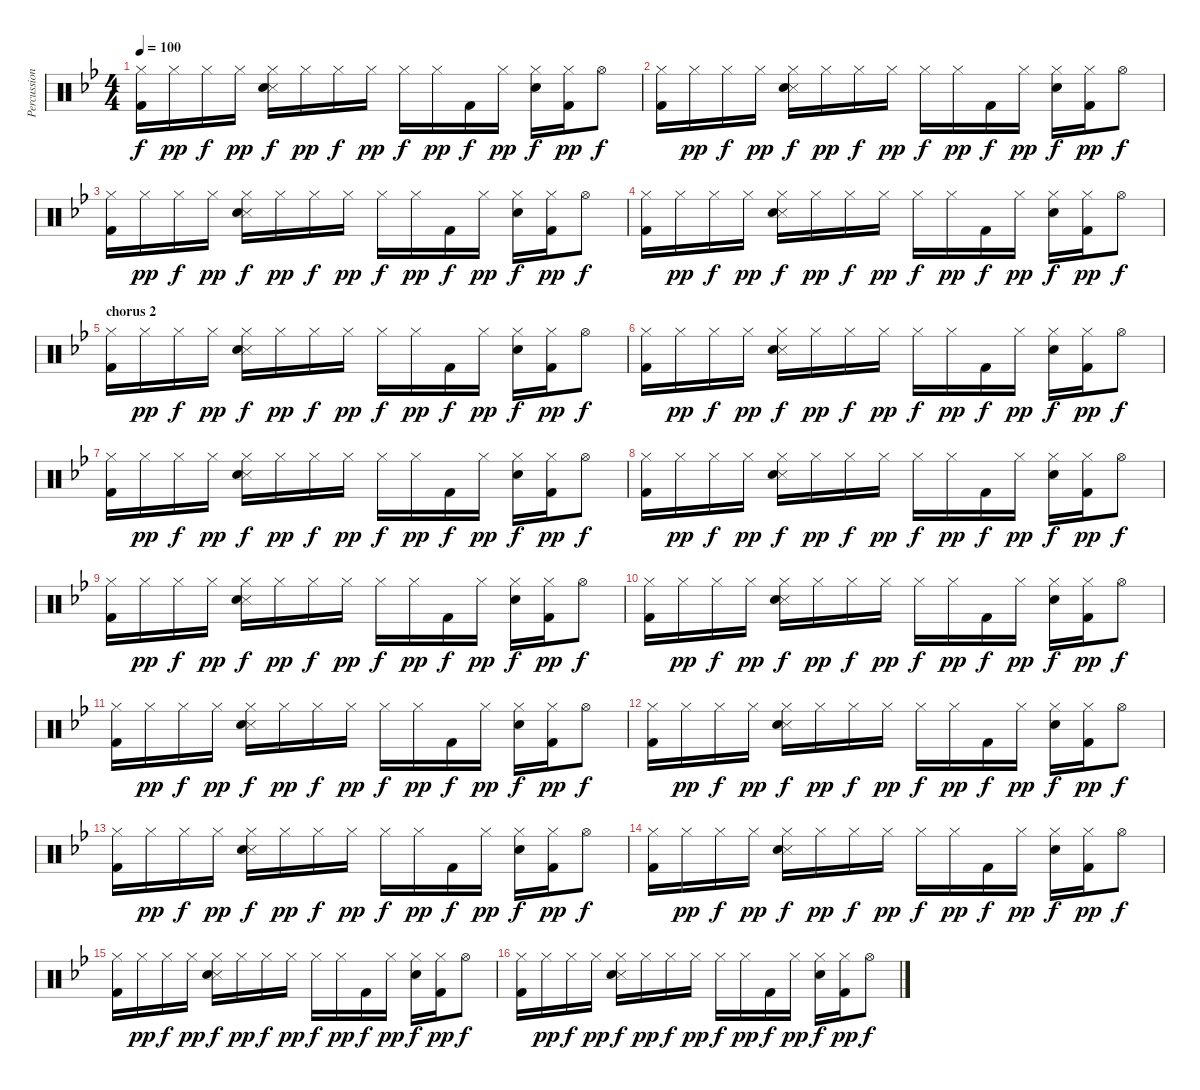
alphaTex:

\track ("Percussion" "Percussion") {instrument percussion}
\staff {score}
\articulation defaults
\ts (4 4)
\tempo 100
\clef neutral
\ks bb
("Hi-Hat (closed)" "Kick (hit) 2").16{dy f} "Hi-Hat (closed)".16{dy pp} "Hi-Hat (closed)".16{dy f} "Hi-Hat (closed)".16{dy pp} ("Hi-Hat (closed)" "Snare (side stick) 3" "Snare (hit) 2").16{dy f} "Hi-Hat (closed)".16{dy pp} "Hi-Hat (closed)".16{dy f} "Hi-Hat (closed)".16{dy pp} "Hi-Hat (closed)".16{dy f} "Hi-Hat (closed)".16{dy pp} "Kick (hit) 2".16{dy f} "Hi-Hat (closed)".16{dy pp} ("Hi-Hat (closed)" "Snare (hit) 2").16{dy f} ("Hi-Hat (closed)" "Kick (hit) 2").16{dy pp} "Hi-Hat (open)".8{dy f} |
("Hi-Hat (closed)" "Kick (hit) 2").16 "Hi-Hat (closed)".16{dy pp} "Hi-Hat (closed)".16{dy f} "Hi-Hat (closed)".16{dy pp} ("Hi-Hat (closed)" "Snare (side stick) 3" "Snare (hit) 2").16{dy f} "Hi-Hat (closed)".16{dy pp} "Hi-Hat (closed)".16{dy f} "Hi-Hat (closed)".16{dy pp} "Hi-Hat (closed)".16{dy f} "Hi-Hat (closed)".16{dy pp} "Kick (hit) 2".16{dy f} "Hi-Hat (closed)".16{dy pp} ("Hi-Hat (closed)" "Snare (hit) 2").16{dy f} ("Hi-Hat (closed)" "Kick (hit) 2").16{dy pp} "Hi-Hat (open)".8{dy f} |
("Hi-Hat (closed)" "Kick (hit) 2").16 "Hi-Hat (closed)".16{dy pp} "Hi-Hat (closed)".16{dy f} "Hi-Hat (closed)".16{dy pp} ("Hi-Hat (closed)" "Snare (side stick) 3" "Snare (hit) 2").16{dy f} "Hi-Hat (closed)".16{dy pp} "Hi-Hat (closed)".16{dy f} "Hi-Hat (closed)".16{dy pp} "Hi-Hat (closed)".16{dy f} "Hi-Hat (closed)".16{dy pp} "Kick (hit) 2".16{dy f} "Hi-Hat (closed)".16{dy pp} ("Hi-Hat (closed)" "Snare (hit) 2").16{dy f} ("Hi-Hat (closed)" "Kick (hit) 2").16{dy pp} "Hi-Hat (open)".8{dy f} |
("Hi-Hat (closed)" "Kick (hit) 2").16 "Hi-Hat (closed)".16{dy pp} "Hi-Hat (closed)".16{dy f} "Hi-Hat (closed)".16{dy pp} ("Hi-Hat (closed)" "Snare (side stick) 3" "Snare (hit) 2").16{dy f} "Hi-Hat (closed)".16{dy pp} "Hi-Hat (closed)".16{dy f} "Hi-Hat (closed)".16{dy pp} "Hi-Hat (closed)".16{dy f} "Hi-Hat (closed)".16{dy pp} "Kick (hit) 2".16{dy f} "Hi-Hat (closed)".16{dy pp} ("Hi-Hat (closed)" "Snare (hit) 2").16{dy f} ("Hi-Hat (closed)" "Kick (hit) 2").16{dy pp} "Hi-Hat (open)".8{dy f} |
\section ("" "chorus 2")
("Hi-Hat (closed)" "Kick (hit) 2").16 "Hi-Hat (closed)".16{dy pp} "Hi-Hat (closed)".16{dy f} "Hi-Hat (closed)".16{dy pp} ("Hi-Hat (closed)" "Snare (side stick) 3" "Snare (hit) 2").16{dy f} "Hi-Hat (closed)".16{dy pp} "Hi-Hat (closed)".16{dy f} "Hi-Hat (closed)".16{dy pp} "Hi-Hat (closed)".16{dy f} "Hi-Hat (closed)".16{dy pp} "Kick (hit) 2".16{dy f} "Hi-Hat (closed)".16{dy pp} ("Hi-Hat (closed)" "Snare (hit) 2").16{dy f} ("Hi-Hat (closed)" "Kick (hit) 2").16{dy pp} "Hi-Hat (open)".8{dy f} |
("Hi-Hat (closed)" "Kick (hit) 2").16 "Hi-Hat (closed)".16{dy pp} "Hi-Hat (closed)".16{dy f} "Hi-Hat (closed)".16{dy pp} ("Hi-Hat (closed)" "Snare (side stick) 3" "Snare (hit) 2").16{dy f} "Hi-Hat (closed)".16{dy pp} "Hi-Hat (closed)".16{dy f} "Hi-Hat (closed)".16{dy pp} "Hi-Hat (closed)".16{dy f} "Hi-Hat (closed)".16{dy pp} "Kick (hit) 2".16{dy f} "Hi-Hat (closed)".16{dy pp} ("Hi-Hat (closed)" "Snare (hit) 2").16{dy f} ("Hi-Hat (closed)" "Kick (hit) 2").16{dy pp} "Hi-Hat (open)".8{dy f} |
("Hi-Hat (closed)" "Kick (hit) 2").16 "Hi-Hat (closed)".16{dy pp} "Hi-Hat (closed)".16{dy f} "Hi-Hat (closed)".16{dy pp} ("Hi-Hat (closed)" "Snare (side stick) 3" "Snare (hit) 2").16{dy f} "Hi-Hat (closed)".16{dy pp} "Hi-Hat (closed)".16{dy f} "Hi-Hat (closed)".16{dy pp} "Hi-Hat (closed)".16{dy f} "Hi-Hat (closed)".16{dy pp} "Kick (hit) 2".16{dy f} "Hi-Hat (closed)".16{dy pp} ("Hi-Hat (closed)" "Snare (hit) 2").16{dy f} ("Hi-Hat (closed)" "Kick (hit) 2").16{dy pp} "Hi-Hat (open)".8{dy f} |
("Hi-Hat (closed)" "Kick (hit) 2").16 "Hi-Hat (closed)".16{dy pp} "Hi-Hat (closed)".16{dy f} "Hi-Hat (closed)".16{dy pp} ("Hi-Hat (closed)" "Snare (side stick) 3" "Snare (hit) 2").16{dy f} "Hi-Hat (closed)".16{dy pp} "Hi-Hat (closed)".16{dy f} "Hi-Hat (closed)".16{dy pp} "Hi-Hat (closed)".16{dy f} "Hi-Hat (closed)".16{dy pp} "Kick (hit) 2".16{dy f} "Hi-Hat (closed)".16{dy pp} ("Hi-Hat (closed)" "Snare (hit) 2").16{dy f} ("Hi-Hat (closed)" "Kick (hit) 2").16{dy pp} "Hi-Hat (open)".8{dy f} |
("Hi-Hat (closed)" "Kick (hit) 2").16 "Hi-Hat (closed)".16{dy pp} "Hi-Hat (closed)".16{dy f} "Hi-Hat (closed)".16{dy pp} ("Hi-Hat (closed)" "Snare (side stick) 3" "Snare (hit) 2").16{dy f} "Hi-Hat (closed)".16{dy pp} "Hi-Hat (closed)".16{dy f} "Hi-Hat (closed)".16{dy pp} "Hi-Hat (closed)".16{dy f} "Hi-Hat (closed)".16{dy pp} "Kick (hit) 2".16{dy f} "Hi-Hat (closed)".16{dy pp} ("Hi-Hat (closed)" "Snare (hit) 2").16{dy f} ("Hi-Hat (closed)" "Kick (hit) 2").16{dy pp} "Hi-Hat (open)".8{dy f} |
("Hi-Hat (closed)" "Kick (hit) 2").16 "Hi-Hat (closed)".16{dy pp} "Hi-Hat (closed)".16{dy f} "Hi-Hat (closed)".16{dy pp} ("Hi-Hat (closed)" "Snare (side stick) 3" "Snare (hit) 2").16{dy f} "Hi-Hat (closed)".16{dy pp} "Hi-Hat (closed)".16{dy f} "Hi-Hat (closed)".16{dy pp} "Hi-Hat (closed)".16{dy f} "Hi-Hat (closed)".16{dy pp} "Kick (hit) 2".16{dy f} "Hi-Hat (closed)".16{dy pp} ("Hi-Hat (closed)" "Snare (hit) 2").16{dy f} ("Hi-Hat (closed)" "Kick (hit) 2").16{dy pp} "Hi-Hat (open)".8{dy f} |
("Hi-Hat (closed)" "Kick (hit) 2").16 "Hi-Hat (closed)".16{dy pp} "Hi-Hat (closed)".16{dy f} "Hi-Hat (closed)".16{dy pp} ("Hi-Hat (closed)" "Snare (side stick) 3" "Snare (hit) 2").16{dy f} "Hi-Hat (closed)".16{dy pp} "Hi-Hat (closed)".16{dy f} "Hi-Hat (closed)".16{dy pp} "Hi-Hat (closed)".16{dy f} "Hi-Hat (closed)".16{dy pp} "Kick (hit) 2".16{dy f} "Hi-Hat (closed)".16{dy pp} ("Hi-Hat (closed)" "Snare (hit) 2").16{dy f} ("Hi-Hat (closed)" "Kick (hit) 2").16{dy pp} "Hi-Hat (open)".8{dy f} |
("Hi-Hat (closed)" "Kick (hit) 2").16 "Hi-Hat (closed)".16{dy pp} "Hi-Hat (closed)".16{dy f} "Hi-Hat (closed)".16{dy pp} ("Hi-Hat (closed)" "Snare (side stick) 3" "Snare (hit) 2").16{dy f} "Hi-Hat (closed)".16{dy pp} "Hi-Hat (closed)".16{dy f} "Hi-Hat (closed)".16{dy pp} "Hi-Hat (closed)".16{dy f} "Hi-Hat (closed)".16{dy pp} "Kick (hit) 2".16{dy f} "Hi-Hat (closed)".16{dy pp} ("Hi-Hat (closed)" "Snare (hit) 2").16{dy f} ("Hi-Hat (closed)" "Kick (hit) 2").16{dy pp} "Hi-Hat (open)".8{dy f} |
("Hi-Hat (closed)" "Kick (hit) 2").16 "Hi-Hat (closed)".16{dy pp} "Hi-Hat (closed)".16{dy f} "Hi-Hat (closed)".16{dy pp} ("Hi-Hat (closed)" "Snare (side stick) 3" "Snare (hit) 2").16{dy f} "Hi-Hat (closed)".16{dy pp} "Hi-Hat (closed)".16{dy f} "Hi-Hat (closed)".16{dy pp} "Hi-Hat (closed)".16{dy f} "Hi-Hat (closed)".16{dy pp} "Kick (hit) 2".16{dy f} "Hi-Hat (closed)".16{dy pp} ("Hi-Hat (closed)" "Snare (hit) 2").16{dy f} ("Hi-Hat (closed)" "Kick (hit) 2").16{dy pp} "Hi-Hat (open)".8{dy f} |
("Hi-Hat (closed)" "Kick (hit) 2").16 "Hi-Hat (closed)".16{dy pp} "Hi-Hat (closed)".16{dy f} "Hi-Hat (closed)".16{dy pp} ("Hi-Hat (closed)" "Snare (side stick) 3" "Snare (hit) 2").16{dy f} "Hi-Hat (closed)".16{dy pp} "Hi-Hat (closed)".16{dy f} "Hi-Hat (closed)".16{dy pp} "Hi-Hat (closed)".16{dy f} "Hi-Hat (closed)".16{dy pp} "Kick (hit) 2".16{dy f} "Hi-Hat (closed)".16{dy pp} ("Hi-Hat (closed)" "Snare (hit) 2").16{dy f} ("Hi-Hat (closed)" "Kick (hit) 2").16{dy pp} "Hi-Hat (open)".8{dy f} |
("Hi-Hat (closed)" "Kick (hit) 2").16 "Hi-Hat (closed)".16{dy pp} "Hi-Hat (closed)".16{dy f} "Hi-Hat (closed)".16{dy pp} ("Hi-Hat (closed)" "Snare (side stick) 3" "Snare (hit) 2").16{dy f} "Hi-Hat (closed)".16{dy pp} "Hi-Hat (closed)".16{dy f} "Hi-Hat (closed)".16{dy pp} "Hi-Hat (closed)".16{dy f} "Hi-Hat (closed)".16{dy pp} "Kick (hit) 2".16{dy f} "Hi-Hat (closed)".16{dy pp} ("Hi-Hat (closed)" "Snare (hit) 2").16{dy f} ("Hi-Hat (closed)" "Kick (hit) 2").16{dy pp} "Hi-Hat (open)".8{dy f} |
("Hi-Hat (closed)" "Kick (hit) 2").16 "Hi-Hat (closed)".16{dy pp} "Hi-Hat (closed)".16{dy f} "Hi-Hat (closed)".16{dy pp} ("Hi-Hat (closed)" "Snare (side stick) 3" "Snare (hit) 2").16{dy f} "Hi-Hat (closed)".16{dy pp} "Hi-Hat (closed)".16{dy f} "Hi-Hat (closed)".16{dy pp} "Hi-Hat (closed)".16{dy f} "Hi-Hat (closed)".16{dy pp} "Kick (hit) 2".16{dy f} "Hi-Hat (closed)".16{dy pp} ("Hi-Hat (closed)" "Snare (hit) 2").16{dy f} ("Hi-Hat (closed)" "Kick (hit) 2").16{dy pp} "Hi-Hat (open)".8{dy f}
